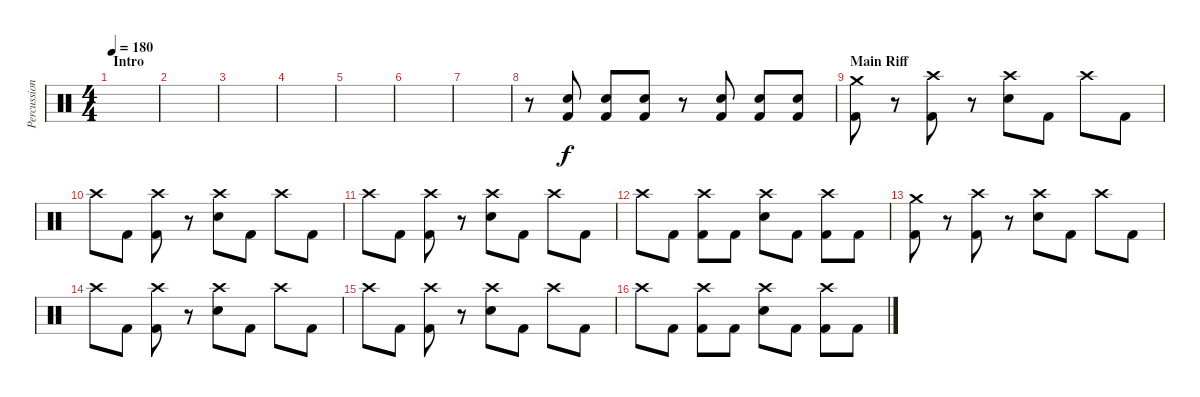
\track ("Percussion" "Percussion") {instrument percussion}
\staff {score}
\articulation defaults
\ts (4 4)
\section ("" "Intro")
\tempo 180
\clef neutral
\ks c
|
|
|
|
|
|
|
r.8 ("Electric Snare (hit)" "Kick (hit) 2").8 ("Electric Snare (hit)" "Kick (hit) 2").8 ("Electric Snare (hit)" "Kick (hit) 2").8 r.8 ("Electric Snare (hit)" "Kick (hit) 2").8 ("Electric Snare (hit)" "Kick (hit) 2").8 ("Electric Snare (hit)" "Kick (hit) 2").8 |
\section ("" "Main Riff")
("Crash medium (hit)" "Kick (hit) 2").8 r.8 ("Crash high (hit)" "Kick (hit) 2").8 r.8 ("Crash high (hit)" "Electric Snare (hit)").8 "Kick (hit) 2".8 "Crash high (hit)".8 "Kick (hit) 2".8 |
"Crash high (hit)".8 "Kick (hit) 2".8 ("Crash high (hit)" "Kick (hit) 2").8 r.8 ("Crash high (hit)" "Electric Snare (hit)").8 "Kick (hit) 2".8 "Crash high (hit)".8 "Kick (hit) 2".8 |
"Crash high (hit)".8 "Kick (hit) 2".8 ("Crash high (hit)" "Kick (hit) 2").8 r.8 ("Crash high (hit)" "Electric Snare (hit)").8 "Kick (hit) 2".8 "Crash high (hit)".8 "Kick (hit) 2".8 |
"Crash high (hit)".8 "Kick (hit) 2".8 ("Crash high (hit)" "Kick (hit) 2").8 "Kick (hit) 2".8 ("Crash high (hit)" "Electric Snare (hit)").8 "Kick (hit) 2".8 ("Crash high (hit)" "Kick (hit) 2").8 "Kick (hit) 2".8 |
("Crash medium (hit)" "Kick (hit) 2").8 r.8 ("Crash high (hit)" "Kick (hit) 2").8 r.8 ("Crash high (hit)" "Electric Snare (hit)").8 "Kick (hit) 2".8 "Crash high (hit)".8 "Kick (hit) 2".8 |
"Crash high (hit)".8 "Kick (hit) 2".8 ("Crash high (hit)" "Kick (hit) 2").8 r.8 ("Crash high (hit)" "Electric Snare (hit)").8 "Kick (hit) 2".8 "Crash high (hit)".8 "Kick (hit) 2".8 |
"Crash high (hit)".8 "Kick (hit) 2".8 ("Crash high (hit)" "Kick (hit) 2").8 r.8 ("Crash high (hit)" "Electric Snare (hit)").8 "Kick (hit) 2".8 "Crash high (hit)".8 "Kick (hit) 2".8 |
"Crash high (hit)".8 "Kick (hit) 2".8 ("Crash high (hit)" "Kick (hit) 2").8 "Kick (hit) 2".8 ("Crash high (hit)" "Electric Snare (hit)").8 "Kick (hit) 2".8 ("Crash high (hit)" "Kick (hit) 2").8 "Kick (hit) 2".8
